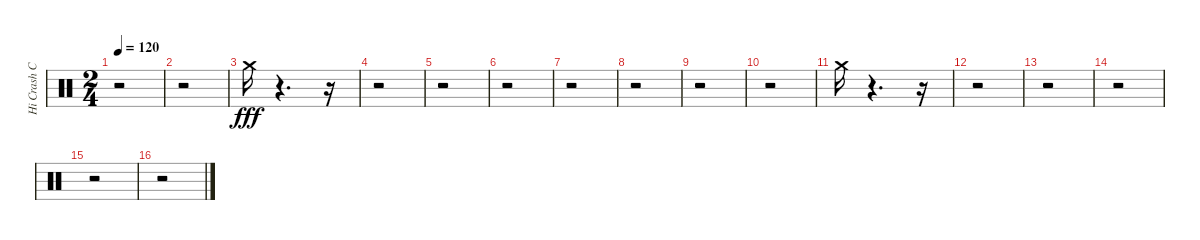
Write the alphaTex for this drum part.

\track ("Hi Crash Cymbal (1) (1) (1) (1)" "Hi Crash C") {instrument percussion}
\staff {score}
\articulation defaults
\ts (2 4)
\tempo 120
\clef neutral
\ks c
r.2{dy fff} |
r.2 |
"Crash medium (hit)".16 r.4{d} r.16 |
r.2 |
r.2 |
r.2 |
r.2 |
r.2 |
r.2 |
r.2 |
"Crash medium (hit)".16 r.4{d} r.16 |
r.2 |
r.2 |
r.2 |
r.2 |
r.2
